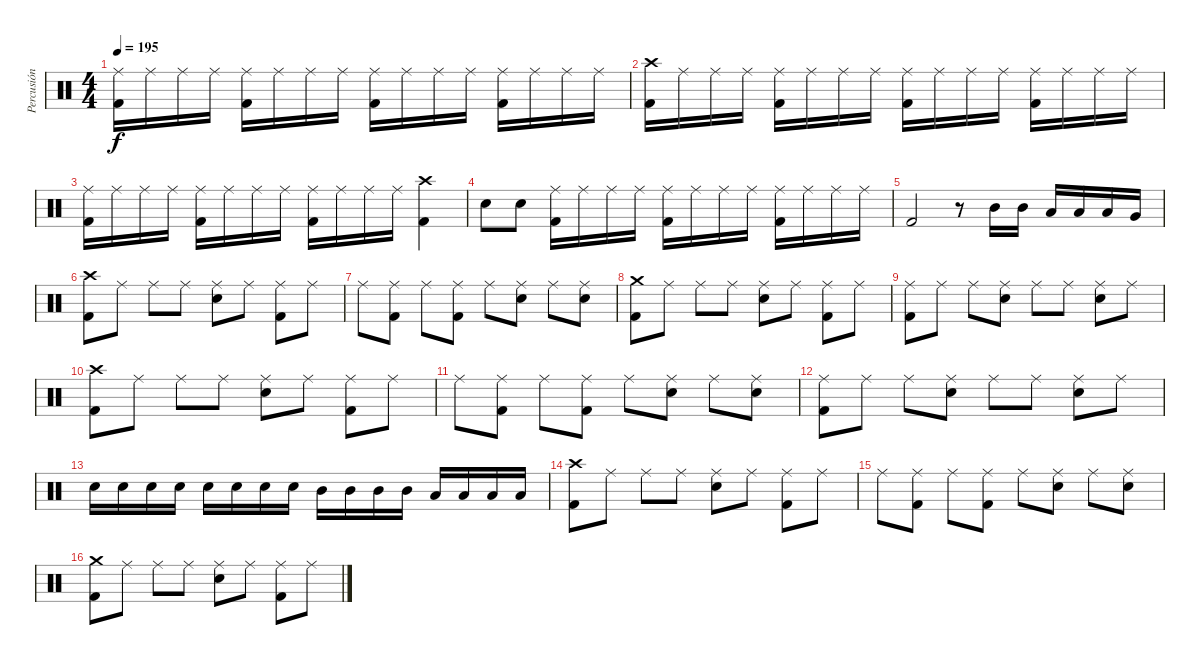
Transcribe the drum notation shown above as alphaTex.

\track ("Percusión" "Percusión") {instrument percussion}
\staff {score}
\articulation defaults
\ts (4 4)
\tempo 195
\clef neutral
\ks c
("Kick (hit) 2" "Ride (middle)").16{dy f} "Ride (middle)".16 "Ride (middle)".16 "Ride (middle)".16 ("Kick (hit) 2" "Ride (middle)").16 "Ride (middle)".16 "Ride (middle)".16 "Ride (middle)".16 ("Kick (hit) 2" "Ride (middle)").16 "Ride (middle)".16 "Ride (middle)".16 "Ride (middle)".16 ("Kick (hit) 2" "Ride (middle)").16 "Ride (middle)".16 "Ride (middle)".16 "Ride (middle)".16 |
("Kick (hit) 2" "Crash high (hit)").16 "Ride (middle)".16 "Ride (middle)".16 "Ride (middle)".16 ("Kick (hit) 2" "Ride (middle)").16 "Ride (middle)".16 "Ride (middle)".16 "Ride (middle)".16 ("Kick (hit) 2" "Ride (middle)").16 "Ride (middle)".16 "Ride (middle)".16 "Ride (middle)".16 ("Kick (hit) 2" "Ride (middle)").16 "Ride (middle)".16 "Ride (middle)".16 "Ride (middle)".16 |
("Kick (hit) 2" "Ride (middle)").16 "Ride (middle)".16 "Ride (middle)".16 "Ride (middle)".16 ("Kick (hit) 2" "Ride (middle)").16 "Ride (middle)".16 "Ride (middle)".16 "Ride (middle)".16 ("Kick (hit) 2" "Ride (middle)").16 "Ride (middle)".16 "Ride (middle)".16 "Ride (middle)".16 ("Kick (hit) 2" "Crash high (hit)").4 |
"Snare (hit) 2".8 "Snare (hit) 2".8 ("Kick (hit) 2" "Ride (middle)").16 "Ride (middle)".16 "Ride (middle)".16 "Ride (middle)".16 ("Kick (hit) 2" "Ride (middle)").16 "Ride (middle)".16 "Ride (middle)".16 "Ride (middle)".16 ("Kick (hit) 2" "Ride (middle)").16 "Ride (middle)".16 "Ride (middle)".16 "Ride (middle)".16 |
"Kick (hit) 2".2 r.8 "Mid Tom (hit)".16 "Mid Tom (hit)".16 "Low Tom (hit)".16 "Low Tom (hit)".16 "Low Tom (hit)".16 "Very Low Tom (hit)".16 |
("Kick (hit) 2" "Crash high (hit)").8 "Ride (middle)".8 "Ride (middle)".8 "Ride (middle)".8 ("Snare (hit) 2" "Ride (middle)").8 "Ride (middle)".8 ("Kick (hit) 2" "Ride (middle)").8 "Ride (middle)".8 |
"Ride (middle)".8 ("Kick (hit) 2" "Ride (middle)").8 "Ride (middle)".8 ("Kick (hit) 2" "Ride (middle)").8 "Ride (middle)".8 ("Snare (hit) 2" "Ride (middle)").8 "Ride (middle)".8 ("Snare (hit) 2" "Ride (middle)").8 |
("Kick (hit) 2" "Crash medium (hit)").8 "Ride (middle)".8 "Ride (middle)".8 "Ride (middle)".8 ("Snare (hit) 2" "Ride (middle)").8 "Ride (middle)".8 ("Kick (hit) 2" "Ride (middle)").8 "Ride (middle)".8 |
("Kick (hit) 2" "Ride (middle)").8 "Ride (middle)".8 "Ride (middle)".8 ("Snare (hit) 2" "Ride (middle)").8 "Ride (middle)".8 "Ride (middle)".8 ("Snare (hit) 2" "Ride (middle)").8 "Ride (middle)".8 |
("Kick (hit) 2" "Crash high (hit)").8 "Ride (middle)".8 "Ride (middle)".8 "Ride (middle)".8 ("Snare (hit) 2" "Ride (middle)").8 "Ride (middle)".8 ("Kick (hit) 2" "Ride (middle)").8 "Ride (middle)".8 |
"Ride (middle)".8 ("Kick (hit) 2" "Ride (middle)").8 "Ride (middle)".8 ("Kick (hit) 2" "Ride (middle)").8 "Ride (middle)".8 ("Snare (hit) 2" "Ride (middle)").8 "Ride (middle)".8 ("Snare (hit) 2" "Ride (middle)").8 |
("Kick (hit) 2" "Ride (middle)").8 "Ride (middle)".8 "Ride (middle)".8 ("Snare (hit) 2" "Ride (middle)").8 "Ride (middle)".8 "Ride (middle)".8 ("Snare (hit) 2" "Ride (middle)").8 "Ride (middle)".8 |
"Snare (hit) 2".16 "Snare (hit) 2".16 "Snare (hit) 2".16 "Snare (hit) 2".16 "Snare (hit) 2".16 "Snare (hit) 2".16 "Snare (hit) 2".16 "Snare (hit) 2".16 "Mid Tom (hit)".16 "Mid Tom (hit)".16 "Mid Tom (hit)".16 "Mid Tom (hit)".16 "Low Tom (hit)".16 "Low Tom (hit)".16 "Low Tom (hit)".16 "Low Tom (hit)".16 |
("Kick (hit) 2" "Crash high (hit)").8 "Ride (middle)".8 "Ride (middle)".8 "Ride (middle)".8 ("Snare (hit) 2" "Ride (middle)").8 "Ride (middle)".8 ("Kick (hit) 2" "Ride (middle)").8 "Ride (middle)".8 |
"Ride (middle)".8 ("Kick (hit) 2" "Ride (middle)").8 "Ride (middle)".8 ("Kick (hit) 2" "Ride (middle)").8 "Ride (middle)".8 ("Snare (hit) 2" "Ride (middle)").8 "Ride (middle)".8 ("Snare (hit) 2" "Ride (middle)").8 |
("Kick (hit) 2" "Crash medium (hit)").8 "Ride (middle)".8 "Ride (middle)".8 "Ride (middle)".8 ("Snare (hit) 2" "Ride (middle)").8 "Ride (middle)".8 ("Kick (hit) 2" "Ride (middle)").8 "Ride (middle)".8
